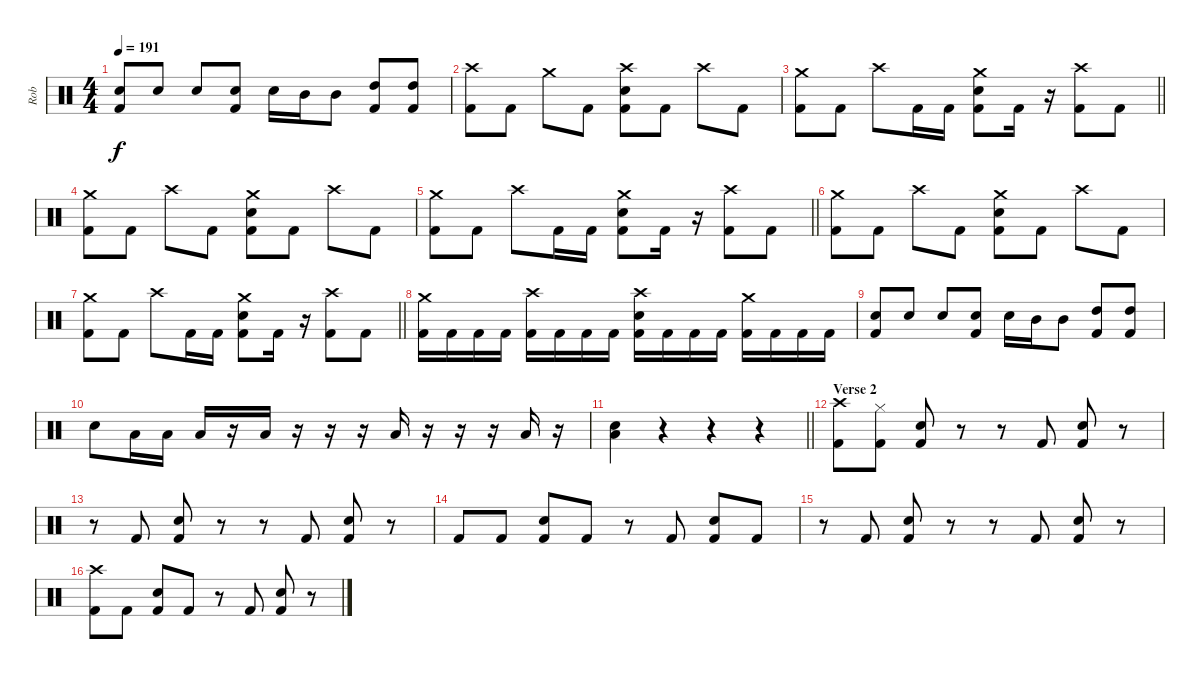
\track ("Rob" "Rob") {instrument percussion}
\staff {score}
\articulation defaults
\ts (4 4)
\tempo 191
\clef neutral
\ks c
("Snare (hit) 2" "Kick (hit) 2").8{dy f} "Snare (hit) 2".8 "Snare (hit) 2".8 ("Snare (hit) 2" "Kick (hit) 2").8 "Snare (hit) 2".16 "Mid Tom (hit)".16 "Mid Tom (hit)".8 ("High Tom (hit)" "Kick (hit) 2").8 ("High Tom (hit)" "Kick (hit) 2").8 |
("Crash high (hit)" "Kick (hit) 2").8 "Kick (hit) 2".8 "Crash medium (hit)".8 "Kick (hit) 2".8 ("Snare (hit) 2" "Kick (hit) 2" "Crash high (hit)").8 "Kick (hit) 2".8 "Crash high (hit)".8 "Kick (hit) 2".8 |
\barLineRight lightlight
("Crash medium (hit)" "Kick (hit) 2").8 "Kick (hit) 2".8 "Crash high (hit)".8 "Kick (hit) 2".16 "Kick (hit) 2".16 ("Crash medium (hit)" "Kick (hit) 2" "Snare (hit) 2").8 "Kick (hit) 2".16 r.16 ("Crash high (hit)" "Kick (hit) 2").8 "Kick (hit) 2".8 |
("Crash medium (hit)" "Kick (hit) 2").8 "Kick (hit) 2".8 "Crash high (hit)".8 "Kick (hit) 2".8 ("Snare (hit) 2" "Kick (hit) 2" "Crash medium (hit)").8 "Kick (hit) 2".8 "Crash high (hit)".8 "Kick (hit) 2".8 |
\barLineRight lightlight
("Crash medium (hit)" "Kick (hit) 2").8 "Kick (hit) 2".8 "Crash high (hit)".8 "Kick (hit) 2".16 "Kick (hit) 2".16 ("Crash medium (hit)" "Kick (hit) 2" "Snare (hit) 2").8 "Kick (hit) 2".16 r.16 ("Crash high (hit)" "Kick (hit) 2").8 "Kick (hit) 2".8 |
("Crash medium (hit)" "Kick (hit) 2").8 "Kick (hit) 2".8 "Crash high (hit)".8 "Kick (hit) 2".8 ("Snare (hit) 2" "Kick (hit) 2" "Crash medium (hit)").8 "Kick (hit) 2".8 "Crash high (hit)".8 "Kick (hit) 2".8 |
\barLineRight lightlight
("Crash medium (hit)" "Kick (hit) 2").8 "Kick (hit) 2".8 "Crash high (hit)".8 "Kick (hit) 2".16 "Kick (hit) 2".16 ("Crash medium (hit)" "Kick (hit) 2" "Snare (hit) 2").8 "Kick (hit) 2".16 r.16 ("Crash high (hit)" "Kick (hit) 2").8 "Kick (hit) 2".8 |
("Kick (hit) 2" "Crash medium (hit)").16 "Kick (hit) 2".16 "Kick (hit) 2".16 "Kick (hit) 2".16 ("Kick (hit) 2" "Crash high (hit)").16 "Kick (hit) 2".16 "Kick (hit) 2".16 "Kick (hit) 2".16 ("Kick (hit) 2" "Crash high (hit)" "Snare (hit) 2").16 "Kick (hit) 2".16 "Kick (hit) 2".16 "Kick (hit) 2".16 ("Kick (hit) 2" "Crash medium (hit)").16 "Kick (hit) 2".16 "Kick (hit) 2".16 "Kick (hit) 2".16 |
("Snare (hit) 2" "Kick (hit) 2").8 "Snare (hit) 2".8 "Snare (hit) 2".8 ("Snare (hit) 2" "Kick (hit) 2").8 "Snare (hit) 2".16 "Mid Tom (hit)".16 "Mid Tom (hit)".8 ("High Tom (hit)" "Kick (hit) 2").8 ("High Tom (hit)" "Kick (hit) 2").8 |
"Snare (hit) 2".8 "Low Tom (hit)".16 "Low Tom (hit)".16 "Low Tom (hit)".16 r.16 "Low Tom (hit)".16 r.16 r.16 r.16 "Low Tom (hit)".16 r.16 r.16 r.16 "Low Tom (hit)".16 r.16 |
\barLineRight lightlight
("Snare (hit) 2" "Low Tom (hit)").4 r.4 r.4 r.4 |
\section ("" "Verse 2")
("Crash high (hit)" "Kick (hit) 2").8 ("Hi-Hat (closed)" "Kick (hit) 2").8 ("Snare (hit) 2" "Kick (hit) 2").8 r.8 r.8 "Kick (hit) 2".8 ("Kick (hit) 2" "Snare (hit) 2").8 r.8 |
r.8 "Kick (hit) 2".8 ("Snare (hit) 2" "Kick (hit) 2").8 r.8 r.8 "Kick (hit) 2".8 ("Snare (hit) 2" "Kick (hit) 2").8 r.8 |
"Kick (hit) 2".8 "Kick (hit) 2".8 ("Snare (hit) 2" "Kick (hit) 2").8 "Kick (hit) 2".8 r.8 "Kick (hit) 2".8 ("Snare (hit) 2" "Kick (hit) 2").8 "Kick (hit) 2".8 |
r.8 "Kick (hit) 2".8 ("Snare (hit) 2" "Kick (hit) 2").8 r.8 r.8 "Kick (hit) 2".8 ("Snare (hit) 2" "Kick (hit) 2").8 r.8 |
("Kick (hit) 2" "Crash high (hit)").8 "Kick (hit) 2".8 ("Snare (hit) 2" "Kick (hit) 2").8 "Kick (hit) 2".8 r.8 "Kick (hit) 2".8 ("Snare (hit) 2" "Kick (hit) 2").8 r.8
